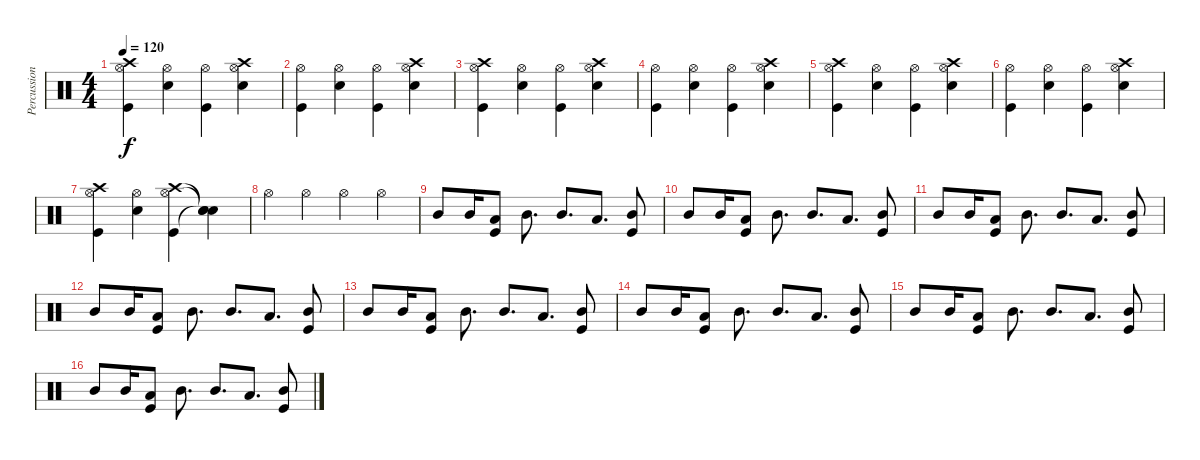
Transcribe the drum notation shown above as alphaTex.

\track ("Percussion" "Percussion") {instrument percussion}
\staff {score}
\articulation defaults
\ts (4 4)
\tempo 120
\clef neutral
\ks c
("Crash high (hit)" "Hi-Hat (open)" "Kick (hit)").4{dy f} ("Hi-Hat (open)" "Snare (hit) 2").4 ("Hi-Hat (open)" "Kick (hit)").4 ("Crash high (hit)" "Hi-Hat (open)" "Snare (hit) 2").4 |
("Hi-Hat (open)" "Kick (hit)").4 ("Hi-Hat (open)" "Snare (hit) 2").4 ("Hi-Hat (open)" "Kick (hit)").4 ("Crash high (hit)" "Hi-Hat (open)" "Snare (hit) 2").4 |
("Crash high (hit)" "Hi-Hat (open)" "Kick (hit)").4 ("Hi-Hat (open)" "Snare (hit) 2").4 ("Hi-Hat (open)" "Kick (hit)").4 ("Crash high (hit)" "Hi-Hat (open)" "Snare (hit) 2").4 |
("Hi-Hat (open)" "Kick (hit)").4 ("Hi-Hat (open)" "Snare (hit) 2").4 ("Hi-Hat (open)" "Kick (hit)").4 ("Crash high (hit)" "Hi-Hat (open)" "Snare (hit) 2").4 |
("Crash high (hit)" "Hi-Hat (open)" "Kick (hit)").4 ("Hi-Hat (open)" "Snare (hit) 2").4 ("Hi-Hat (open)" "Kick (hit)").4 ("Crash high (hit)" "Hi-Hat (open)" "Snare (hit) 2").4 |
("Hi-Hat (open)" "Kick (hit)").4 ("Hi-Hat (open)" "Snare (hit) 2").4 ("Hi-Hat (open)" "Kick (hit)").4 ("Crash high (hit)" "Hi-Hat (open)" "Snare (hit) 2").4 |
("Crash high (hit)" "Hi-Hat (open)" "Kick (hit)").4 ("Hi-Hat (open)" "Snare (hit) 2").4 ("Crash high (hit)" "Hi-Hat (open)" "Kick (hit)").4 ("Snare (hit)"{t} "Snare (hit)"{t} "Snare (hit)"{t}).4 |
"Hi-Hat (open)".4 "Hi-Hat (open)".4 "Hi-Hat (open)".4 "Hi-Hat (open)".4 |
"Mid Tom (hit)".8 "Mid Tom (hit)".16 ("Low Tom (hit)" "Kick (hit)").8 "Mid Tom (hit)".8{d} "Mid Tom (hit)".8{d} "Low Tom (hit)".8{d} ("Mid Tom (hit)" "Kick (hit)").8 |
"Mid Tom (hit)".8 "Mid Tom (hit)".16 ("Low Tom (hit)" "Kick (hit)").8 "Mid Tom (hit)".8{d} "Mid Tom (hit)".8{d} "Low Tom (hit)".8{d} ("Mid Tom (hit)" "Kick (hit)").8 |
"Mid Tom (hit)".8 "Mid Tom (hit)".16 ("Low Tom (hit)" "Kick (hit)").8 "Mid Tom (hit)".8{d} "Mid Tom (hit)".8{d} "Low Tom (hit)".8{d} ("Mid Tom (hit)" "Kick (hit)").8 |
"Mid Tom (hit)".8 "Mid Tom (hit)".16 ("Low Tom (hit)" "Kick (hit)").8 "Mid Tom (hit)".8{d} "Mid Tom (hit)".8{d} "Low Tom (hit)".8{d} ("Mid Tom (hit)" "Kick (hit)").8 |
"Mid Tom (hit)".8 "Mid Tom (hit)".16 ("Low Tom (hit)" "Kick (hit)").8 "Mid Tom (hit)".8{d} "Mid Tom (hit)".8{d} "Low Tom (hit)".8{d} ("Mid Tom (hit)" "Kick (hit)").8 |
"Mid Tom (hit)".8 "Mid Tom (hit)".16 ("Low Tom (hit)" "Kick (hit)").8 "Mid Tom (hit)".8{d} "Mid Tom (hit)".8{d} "Low Tom (hit)".8{d} ("Mid Tom (hit)" "Kick (hit)").8 |
"Mid Tom (hit)".8 "Mid Tom (hit)".16 ("Low Tom (hit)" "Kick (hit)").8 "Mid Tom (hit)".8{d} "Mid Tom (hit)".8{d} "Low Tom (hit)".8{d} ("Mid Tom (hit)" "Kick (hit)").8 |
"Mid Tom (hit)".8 "Mid Tom (hit)".16 ("Low Tom (hit)" "Kick (hit)").8 "Mid Tom (hit)".8{d} "Mid Tom (hit)".8{d} "Low Tom (hit)".8{d} ("Mid Tom (hit)" "Kick (hit)").8
